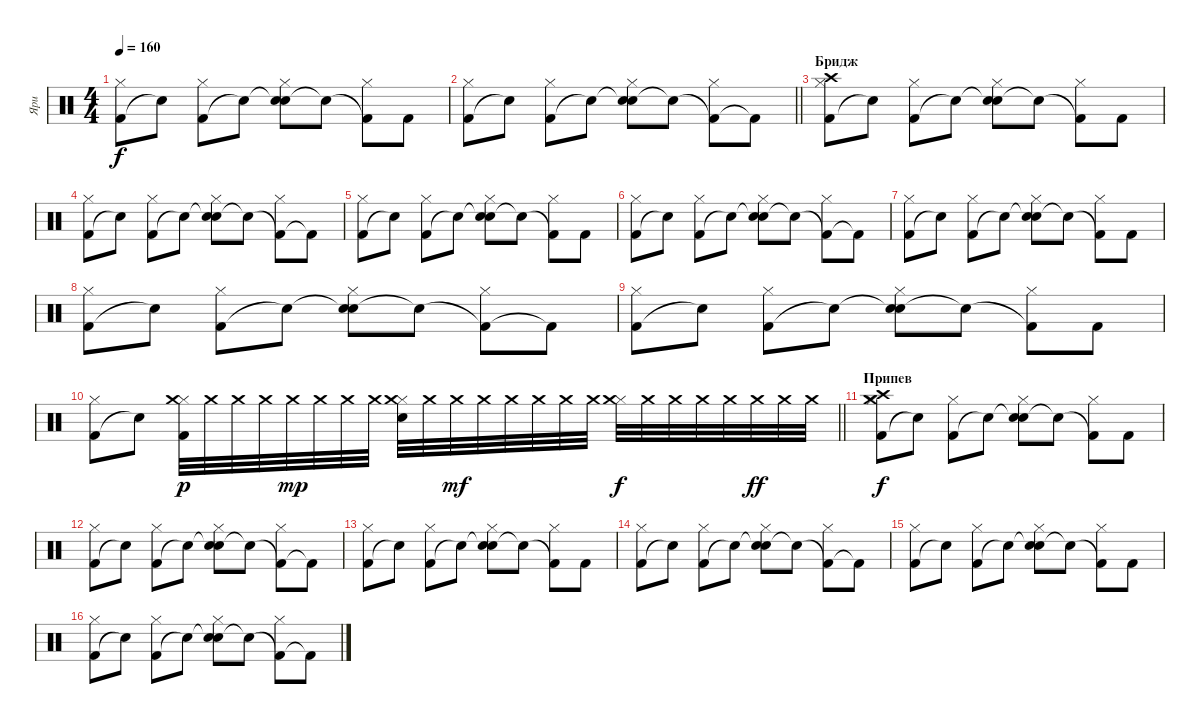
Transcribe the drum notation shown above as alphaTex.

\track ("Яри" "Яри") {instrument percussion}
\staff {score}
\articulation defaults
\ts (4 4)
\tempo 160
\clef neutral
\ks c
("Kick (hit) 2" "Hi-Hat (closed)").8{dy f} "Snare (hit)"{t}.8 ("Kick (hit) 2" "Hi-Hat (closed)").8 "Snare (hit)"{t}.8 ("Snare (hit)"{t} "Hi-Hat (closed)" "Snare (hit) 2").8 "Snare (hit)"{t}.8 ("Kick (hit) 2"{t} "Hi-Hat (closed)").8 "Kick (hit) 2".8 |
\barLineRight lightlight
("Kick (hit) 2" "Hi-Hat (closed)").8 "Snare (hit)"{t}.8 ("Kick (hit) 2" "Hi-Hat (closed)").8 "Snare (hit)"{t}.8 ("Snare (hit)"{t} "Hi-Hat (closed)" "Snare (hit) 2").8 "Snare (hit)"{t}.8 ("Kick (hit) 2"{t} "Hi-Hat (closed)").8 "Kick (hit) 2"{t}.8 |
\section ("" "Бридж")
("Kick (hit) 2" "Hi-Hat (closed)" "Crash high (hit)").8 "Snare (hit)"{t}.8 ("Kick (hit) 2" "Hi-Hat (closed)").8 "Snare (hit)"{t}.8 ("Snare (hit)"{t} "Hi-Hat (closed)" "Snare (hit) 2").8 "Snare (hit)"{t}.8 ("Kick (hit) 2"{t} "Hi-Hat (closed)").8 "Kick (hit) 2".8 |
("Kick (hit) 2" "Hi-Hat (closed)").8 "Snare (hit)"{t}.8 ("Kick (hit) 2" "Hi-Hat (closed)").8 "Snare (hit)"{t}.8 ("Snare (hit)"{t} "Hi-Hat (closed)" "Snare (hit) 2").8 "Snare (hit)"{t}.8 ("Kick (hit) 2"{t} "Hi-Hat (closed)").8 "Kick (hit) 2"{t}.8 |
("Kick (hit) 2" "Hi-Hat (closed)").8 "Snare (hit)"{t}.8 ("Kick (hit) 2" "Hi-Hat (closed)").8 "Snare (hit)"{t}.8 ("Snare (hit)"{t} "Hi-Hat (closed)" "Snare (hit) 2").8 "Snare (hit)"{t}.8 ("Kick (hit) 2"{t} "Hi-Hat (closed)").8 "Kick (hit) 2".8 |
("Kick (hit) 2" "Hi-Hat (closed)").8 "Snare (hit)"{t}.8 ("Kick (hit) 2" "Hi-Hat (closed)").8 "Snare (hit)"{t}.8 ("Snare (hit)"{t} "Hi-Hat (closed)" "Snare (hit) 2").8 "Snare (hit)"{t}.8 ("Kick (hit) 2"{t} "Hi-Hat (closed)").8 "Kick (hit) 2"{t}.8 |
("Kick (hit) 2" "Hi-Hat (closed)").8 "Snare (hit)"{t}.8 ("Kick (hit) 2" "Hi-Hat (closed)").8 "Snare (hit)"{t}.8 ("Snare (hit)"{t} "Hi-Hat (closed)" "Snare (hit) 2").8 "Snare (hit)"{t}.8 ("Kick (hit) 2"{t} "Hi-Hat (closed)").8 "Kick (hit) 2".8 |
("Kick (hit) 2" "Hi-Hat (closed)").8 "Snare (hit)"{t}.8 ("Kick (hit) 2" "Hi-Hat (closed)").8 "Snare (hit)"{t}.8 ("Snare (hit)"{t} "Hi-Hat (closed)" "Snare (hit) 2").8 "Snare (hit)"{t}.8 ("Kick (hit) 2"{t} "Hi-Hat (closed)").8 "Kick (hit) 2"{t}.8 |
("Kick (hit) 2" "Hi-Hat (closed)").8 "Snare (hit)"{t}.8 ("Kick (hit) 2" "Hi-Hat (closed)").8 "Snare (hit)"{t}.8 ("Snare (hit)"{t} "Hi-Hat (closed)" "Snare (hit) 2").8 "Snare (hit)"{t}.8 ("Kick (hit) 2"{t} "Hi-Hat (closed)").8 "Kick (hit) 2".8 |
\barLineRight lightlight
("Kick (hit) 2" "Hi-Hat (closed)").8 "Snare (hit)"{t}.8 ("Kick (hit) 2" "Hi-Hat (closed)" "Crash medium (hit)").32{dy p} "Crash medium (hit)".32 "Crash medium (hit)".32 "Crash medium (hit)".32 "Crash medium (hit)".32{dy mp} "Crash medium (hit)".32 "Crash medium (hit)".32 "Crash medium (hit)".32 ("Hi-Hat (closed)" "Crash medium (hit)" "Snare (hit) 2").32 "Crash medium (hit)".32 "Crash medium (hit)".32{dy mf} "Crash medium (hit)".32 "Crash medium (hit)".32 "Crash medium (hit)".32 "Crash medium (hit)".32 "Crash medium (hit)".32 ("Hi-Hat (closed)" "Crash medium (hit)").32{dy f} "Crash medium (hit)".32 "Crash medium (hit)".32 "Crash medium (hit)".32 "Crash medium (hit)".32 "Crash medium (hit)".32{dy ff} "Crash medium (hit)".32 "Crash medium (hit)".32 |
\section ("" "Припев")
("Kick (hit) 2" "Hi-Hat (closed)" "Crash medium (hit)" "Crash high (hit)").8{dy f} "Snare (hit)"{t}.8 ("Kick (hit) 2" "Hi-Hat (closed)").8 "Snare (hit)"{t}.8 ("Snare (hit)"{t} "Hi-Hat (closed)" "Snare (hit) 2").8 "Snare (hit)"{t}.8 ("Kick (hit) 2"{t} "Hi-Hat (closed)").8 "Kick (hit) 2".8 |
("Kick (hit) 2" "Hi-Hat (closed)").8 "Snare (hit)"{t}.8 ("Kick (hit) 2" "Hi-Hat (closed)").8 "Snare (hit)"{t}.8 ("Snare (hit)"{t} "Hi-Hat (closed)" "Snare (hit) 2").8 "Snare (hit)"{t}.8 ("Kick (hit) 2"{t} "Hi-Hat (closed)").8 "Kick (hit) 2"{t}.8 |
("Kick (hit) 2" "Hi-Hat (closed)").8 "Snare (hit)"{t}.8 ("Kick (hit) 2" "Hi-Hat (closed)").8 "Snare (hit)"{t}.8 ("Snare (hit)"{t} "Hi-Hat (closed)" "Snare (hit) 2").8 "Snare (hit)"{t}.8 ("Kick (hit) 2"{t} "Hi-Hat (closed)").8 "Kick (hit) 2".8 |
("Kick (hit) 2" "Hi-Hat (closed)").8 "Snare (hit)"{t}.8 ("Kick (hit) 2" "Hi-Hat (closed)").8 "Snare (hit)"{t}.8 ("Snare (hit)"{t} "Hi-Hat (closed)" "Snare (hit) 2").8 "Snare (hit)"{t}.8 ("Kick (hit) 2"{t} "Hi-Hat (closed)").8 "Kick (hit) 2"{t}.8 |
("Kick (hit) 2" "Hi-Hat (closed)").8 "Snare (hit)"{t}.8 ("Kick (hit) 2" "Hi-Hat (closed)").8 "Snare (hit)"{t}.8 ("Snare (hit)"{t} "Hi-Hat (closed)" "Snare (hit) 2").8 "Snare (hit)"{t}.8 ("Kick (hit) 2"{t} "Hi-Hat (closed)").8 "Kick (hit) 2".8 |
("Kick (hit) 2" "Hi-Hat (closed)").8 "Snare (hit)"{t}.8 ("Kick (hit) 2" "Hi-Hat (closed)").8 "Snare (hit)"{t}.8 ("Snare (hit)"{t} "Hi-Hat (closed)" "Snare (hit) 2").8 "Snare (hit)"{t}.8 ("Kick (hit) 2"{t} "Hi-Hat (closed)").8 "Kick (hit) 2"{t}.8
